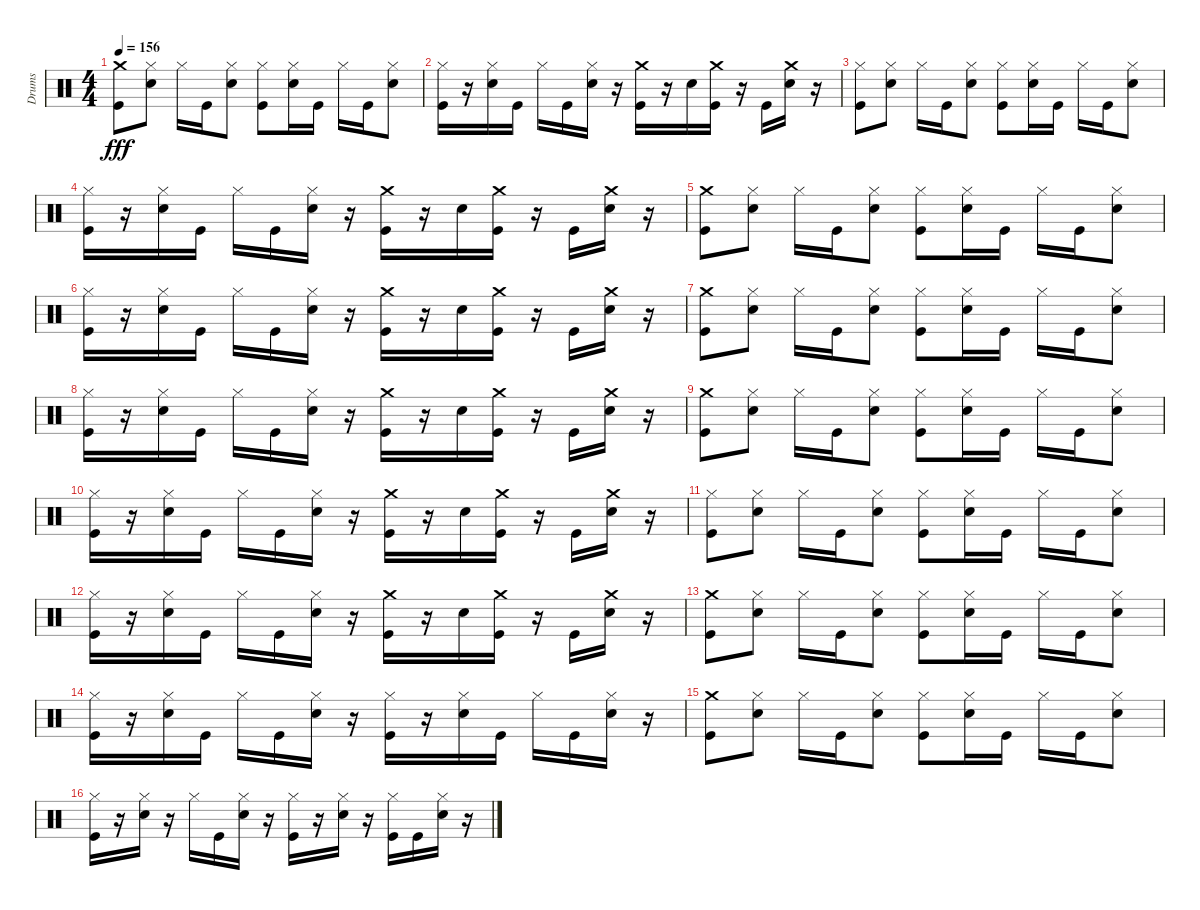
\track ("Drums" "Drums") {instrument percussion}
\staff {score}
\articulation defaults
\ts (4 4)
\tempo 156
\clef neutral
\ks c
("Crash medium (hit)" "Kick (hit)").8{dy fff} ("Hi-Hat (closed)" "Snare (hit) 2").8 "Hi-Hat (closed)".16 "Kick (hit)".16 ("Snare (hit) 2" "Hi-Hat (closed)").8 ("Kick (hit)" "Hi-Hat (closed)").8 ("Snare (hit) 2" "Hi-Hat (closed)").16 "Kick (hit)".16 "Hi-Hat (closed)".16 "Kick (hit)".16 ("Snare (hit) 2" "Hi-Hat (closed)").8 |
("Hi-Hat (closed)" "Kick (hit)").16 r.16 ("Hi-Hat (closed)" "Snare (hit) 2").16 "Kick (hit)".16 "Hi-Hat (closed)".16 "Kick (hit)".16 ("Hi-Hat (closed)" "Snare (hit) 2").16 r.16 ("Crash medium (hit)" "Kick (hit)").16 r.16 "Snare (hit) 2".16 ("Crash medium (hit)" "Kick (hit)").16 r.16 "Kick (hit)".16 ("Crash medium (hit)" "Snare (hit) 2").16 r.16 |
("Hi-Hat (closed)" "Kick (hit)").8 ("Snare (hit) 2" "Hi-Hat (closed)").8 "Hi-Hat (closed)".16 "Kick (hit)".16 ("Snare (hit) 2" "Hi-Hat (closed)").8 ("Kick (hit)" "Hi-Hat (closed)").8 ("Snare (hit) 2" "Hi-Hat (closed)").16 "Kick (hit)".16 "Hi-Hat (closed)".16 "Kick (hit)".16 ("Snare (hit) 2" "Hi-Hat (closed)").8 |
("Hi-Hat (closed)" "Kick (hit)").16 r.16 ("Hi-Hat (closed)" "Snare (hit) 2").16 "Kick (hit)".16 "Hi-Hat (closed)".16 "Kick (hit)".16 ("Hi-Hat (closed)" "Snare (hit) 2").16 r.16 ("Crash medium (hit)" "Kick (hit)").16 r.16 "Snare (hit) 2".16 ("Crash medium (hit)" "Kick (hit)").16 r.16 "Kick (hit)".16 ("Crash medium (hit)" "Snare (hit) 2").16 r.16 |
("Crash medium (hit)" "Kick (hit)").8 ("Snare (hit) 2" "Hi-Hat (closed)").8 "Hi-Hat (closed)".16 "Kick (hit)".16 ("Snare (hit) 2" "Hi-Hat (closed)").8 ("Kick (hit)" "Hi-Hat (closed)").8 ("Snare (hit) 2" "Hi-Hat (closed)").16 "Kick (hit)".16 "Hi-Hat (closed)".16 "Kick (hit)".16 ("Snare (hit) 2" "Hi-Hat (closed)").8 |
("Hi-Hat (closed)" "Kick (hit)").16 r.16 ("Hi-Hat (closed)" "Snare (hit) 2").16 "Kick (hit)".16 "Hi-Hat (closed)".16 "Kick (hit)".16 ("Hi-Hat (closed)" "Snare (hit) 2").16 r.16 ("Crash medium (hit)" "Kick (hit)").16 r.16 "Snare (hit) 2".16 ("Crash medium (hit)" "Kick (hit)").16 r.16 "Kick (hit)".16 ("Crash medium (hit)" "Snare (hit) 2").16 r.16 |
("Crash medium (hit)" "Kick (hit)").8 ("Snare (hit) 2" "Hi-Hat (closed)").8 "Hi-Hat (closed)".16 "Kick (hit)".16 ("Snare (hit) 2" "Hi-Hat (closed)").8 ("Kick (hit)" "Hi-Hat (closed)").8 ("Snare (hit) 2" "Hi-Hat (closed)").16 "Kick (hit)".16 "Hi-Hat (closed)".16 "Kick (hit)".16 ("Snare (hit) 2" "Hi-Hat (closed)").8 |
("Hi-Hat (closed)" "Kick (hit)").16 r.16 ("Hi-Hat (closed)" "Snare (hit) 2").16 "Kick (hit)".16 "Hi-Hat (closed)".16 "Kick (hit)".16 ("Hi-Hat (closed)" "Snare (hit) 2").16 r.16 ("Crash medium (hit)" "Kick (hit)").16 r.16 "Snare (hit) 2".16 ("Crash medium (hit)" "Kick (hit)").16 r.16 "Kick (hit)".16 ("Crash medium (hit)" "Snare (hit) 2").16 r.16 |
("Crash medium (hit)" "Kick (hit)").8 ("Snare (hit) 2" "Hi-Hat (closed)").8 "Hi-Hat (closed)".16 "Kick (hit)".16 ("Snare (hit) 2" "Hi-Hat (closed)").8 ("Kick (hit)" "Hi-Hat (closed)").8 ("Snare (hit) 2" "Hi-Hat (closed)").16 "Kick (hit)".16 "Hi-Hat (closed)".16 "Kick (hit)".16 ("Snare (hit) 2" "Hi-Hat (closed)").8 |
("Hi-Hat (closed)" "Kick (hit)").16 r.16 ("Hi-Hat (closed)" "Snare (hit) 2").16 "Kick (hit)".16 "Hi-Hat (closed)".16 "Kick (hit)".16 ("Hi-Hat (closed)" "Snare (hit) 2").16 r.16 ("Crash medium (hit)" "Kick (hit)").16 r.16 "Snare (hit) 2".16 ("Crash medium (hit)" "Kick (hit)").16 r.16 "Kick (hit)".16 ("Crash medium (hit)" "Snare (hit) 2").16 r.16 |
("Hi-Hat (closed)" "Kick (hit)").8 ("Snare (hit) 2" "Hi-Hat (closed)").8 "Hi-Hat (closed)".16 "Kick (hit)".16 ("Snare (hit) 2" "Hi-Hat (closed)").8 ("Kick (hit)" "Hi-Hat (closed)").8 ("Snare (hit) 2" "Hi-Hat (closed)").16 "Kick (hit)".16 "Hi-Hat (closed)".16 "Kick (hit)".16 ("Snare (hit) 2" "Hi-Hat (closed)").8 |
("Hi-Hat (closed)" "Kick (hit)").16 r.16 ("Hi-Hat (closed)" "Snare (hit) 2").16 "Kick (hit)".16 "Hi-Hat (closed)".16 "Kick (hit)".16 ("Hi-Hat (closed)" "Snare (hit) 2").16 r.16 ("Crash medium (hit)" "Kick (hit)").16 r.16 "Snare (hit) 2".16 ("Crash medium (hit)" "Kick (hit)").16 r.16 "Kick (hit)".16 ("Crash medium (hit)" "Snare (hit) 2").16 r.16 |
("Crash medium (hit)" "Kick (hit)").8 ("Snare (hit) 2" "Hi-Hat (closed)").8 "Hi-Hat (closed)".16 "Kick (hit)".16 ("Snare (hit) 2" "Hi-Hat (closed)").8 ("Kick (hit)" "Hi-Hat (closed)").8 ("Snare (hit) 2" "Hi-Hat (closed)").16 "Kick (hit)".16 "Hi-Hat (closed)".16 "Kick (hit)".16 ("Snare (hit) 2" "Hi-Hat (closed)").8 |
("Hi-Hat (closed)" "Kick (hit)").16 r.16 ("Hi-Hat (closed)" "Snare (hit) 2").16 "Kick (hit)".16 "Hi-Hat (closed)".16 "Kick (hit)".16 ("Hi-Hat (closed)" "Snare (hit) 2").16 r.16 ("Hi-Hat (closed)" "Kick (hit)").16 r.16 ("Hi-Hat (closed)" "Snare (hit) 2").16 "Kick (hit)".16 "Hi-Hat (closed)".16 "Kick (hit)".16 ("Hi-Hat (closed)" "Snare (hit) 2").16 r.16 |
("Crash medium (hit)" "Kick (hit)").8 ("Snare (hit) 2" "Hi-Hat (closed)").8 "Hi-Hat (closed)".16 "Kick (hit)".16 ("Snare (hit) 2" "Hi-Hat (closed)").8 ("Kick (hit)" "Hi-Hat (closed)").8 ("Snare (hit) 2" "Hi-Hat (closed)").16 "Kick (hit)".16 "Hi-Hat (closed)".16 "Kick (hit)".16 ("Snare (hit) 2" "Hi-Hat (closed)").8 |
("Hi-Hat (closed)" "Kick (hit)").16 r.16 ("Hi-Hat (closed)" "Snare (hit) 2").16 r.16 "Hi-Hat (closed)".16 "Kick (hit)".16 ("Hi-Hat (closed)" "Snare (hit) 2").16 r.16 ("Hi-Hat (closed)" "Kick (hit)").16 r.16 ("Hi-Hat (closed)" "Snare (hit) 2").16 r.16 ("Kick (hit)" "Hi-Hat (closed)").16 "Kick (hit)".16 ("Snare (hit) 2" "Hi-Hat (closed)").16 r.16
